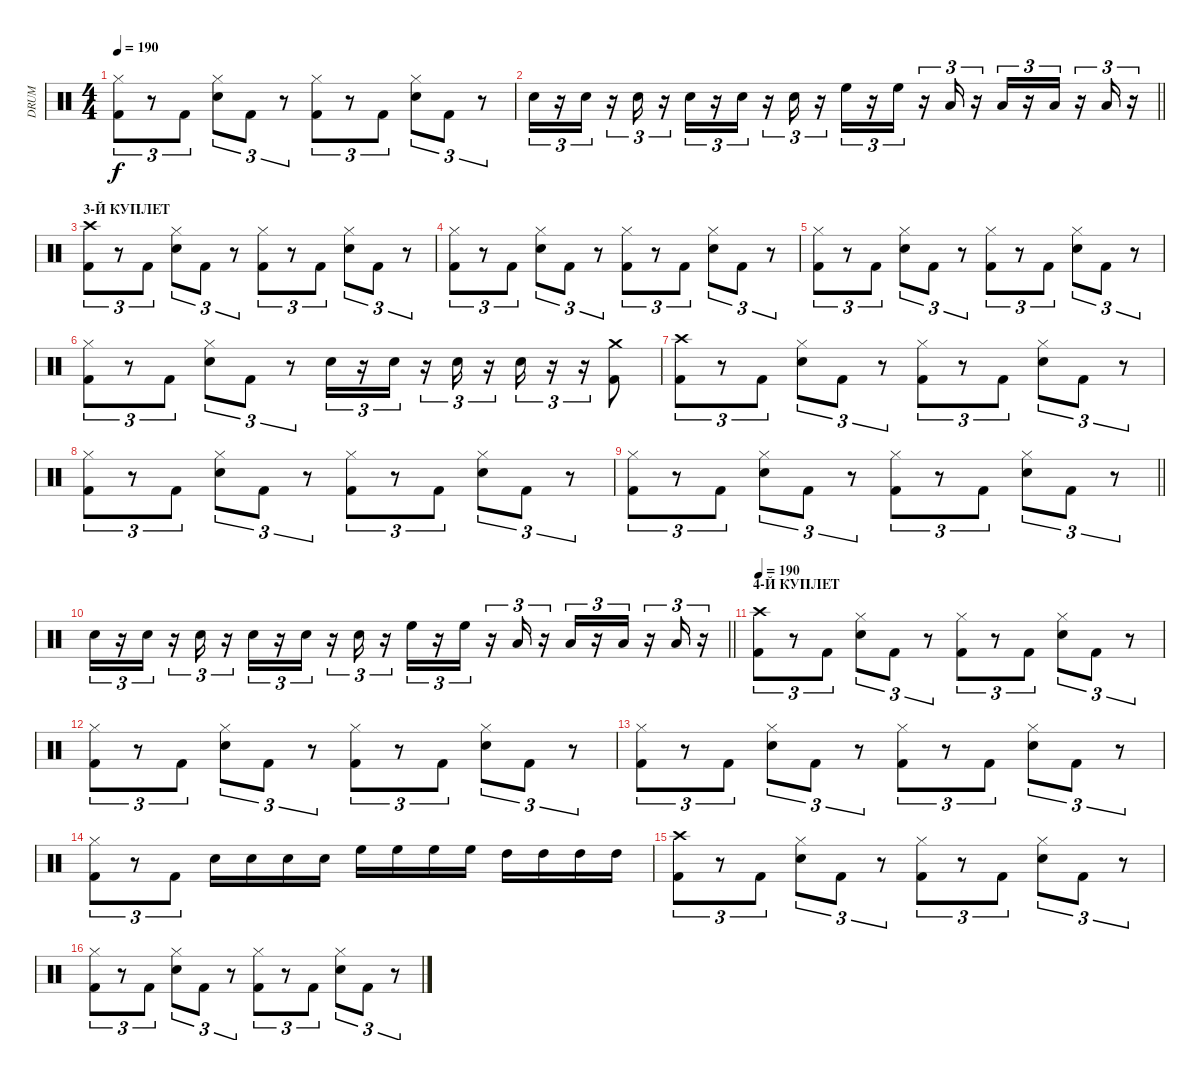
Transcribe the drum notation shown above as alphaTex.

\track ("DRUM" "DRUM") {instrument percussion bank 127}
\staff {score}
\articulation defaults
\ts (4 4)
\tempo 190
\clef neutral
\ks c
("Hi-Hat (closed)" "Kick (hit) 2").8{tu (3 2) dy f} r.8{tu (3 2)} "Kick (hit) 2".8{tu (3 2)} ("Hi-Hat (closed)" "Electric Snare (hit)").8{tu (3 2)} "Kick (hit) 2".8{tu (3 2)} r.8{tu (3 2)} ("Hi-Hat (closed)" "Kick (hit) 2").8{tu (3 2)} r.8{tu (3 2)} "Kick (hit) 2".8{tu (3 2)} ("Hi-Hat (closed)" "Electric Snare (hit)").8{tu (3 2)} "Kick (hit) 2".8{tu (3 2)} r.8{tu (3 2)} |
\barLineRight lightlight "Electric Snare (hit)".16{tu (3 2)}
r.16{tu (3 2)} "Electric Snare (hit)".16{tu (3 2)} r.16{tu (3 2)} "Electric Snare (hit)".16{tu (3 2)} r.16{tu (3 2)} "Electric Snare (hit)".16{tu (3 2)} r.16{tu (3 2)} "Electric Snare (hit)".16{tu (3 2)} r.16{tu (3 2)} "Electric Snare (hit)".16{tu (3 2)} r.16{tu (3 2)} "High Floor Tom (hit)".16{tu (3 2)} r.16{tu (3 2)} "High Floor Tom (hit)".16{tu (3 2)} r.16{tu (3 2)} "Low Tom (hit)".16{tu (3 2)} r.16{tu (3 2)} "Low Tom (hit)".16{tu (3 2)} r.16{tu (3 2)} "Low Tom (hit)".16{tu (3 2)} r.16{tu (3 2)} "Low Tom (hit)".16{tu (3 2)} r.16{tu (3 2)} |
\section ("" "3-Й КУПЛЕТ")
("Crash high (hit)" "Kick (hit) 2").8{tu (3 2)} r.8{tu (3 2)} "Kick (hit) 2".8{tu (3 2)} ("Hi-Hat (closed)" "Electric Snare (hit)").8{tu (3 2)} "Kick (hit) 2".8{tu (3 2)} r.8{tu (3 2)} ("Hi-Hat (closed)" "Kick (hit) 2").8{tu (3 2)} r.8{tu (3 2)} "Kick (hit) 2".8{tu (3 2)} ("Hi-Hat (closed)" "Electric Snare (hit)").8{tu (3 2)} "Kick (hit) 2".8{tu (3 2)} r.8{tu (3 2)} |
("Hi-Hat (closed)" "Kick (hit) 2").8{tu (3 2)} r.8{tu (3 2)} "Kick (hit) 2".8{tu (3 2)} ("Hi-Hat (closed)" "Electric Snare (hit)").8{tu (3 2)} "Kick (hit) 2".8{tu (3 2)} r.8{tu (3 2)} ("Hi-Hat (closed)" "Kick (hit) 2").8{tu (3 2)} r.8{tu (3 2)} "Kick (hit) 2".8{tu (3 2)} ("Hi-Hat (closed)" "Electric Snare (hit)").8{tu (3 2)} "Kick (hit) 2".8{tu (3 2)} r.8{tu (3 2)} |
("Hi-Hat (closed)" "Kick (hit) 2").8{tu (3 2)} r.8{tu (3 2)} "Kick (hit) 2".8{tu (3 2)} ("Hi-Hat (closed)" "Electric Snare (hit)").8{tu (3 2)} "Kick (hit) 2".8{tu (3 2)} r.8{tu (3 2)} ("Hi-Hat (closed)" "Kick (hit) 2").8{tu (3 2)} r.8{tu (3 2)} "Kick (hit) 2".8{tu (3 2)} ("Hi-Hat (closed)" "Electric Snare (hit)").8{tu (3 2)} "Kick (hit) 2".8{tu (3 2)} r.8{tu (3 2)} |
("Hi-Hat (closed)" "Kick (hit) 2").8{tu (3 2)} r.8{tu (3 2)} "Kick (hit) 2".8{tu (3 2)} ("Electric Snare (hit)" "Hi-Hat (closed)").8{tu (3 2)} "Kick (hit) 2".8{tu (3 2)} r.8{tu (3 2)} "Electric Snare (hit)".16{tu (3 2)} r.16{tu (3 2)} "Electric Snare (hit)".16{tu (3 2)} r.16{tu (3 2)} "Electric Snare (hit)".16{tu (3 2)} r.16{tu (3 2)} "Electric Snare (hit)".16{tu (3 2)} r.16{tu (3 2)} r.16{tu (3 2)} ("Crash medium (hit)" "Kick (hit) 2").8 |
("Crash high (hit)" "Kick (hit) 2").8{tu (3 2)} r.8{tu (3 2)} "Kick (hit) 2".8{tu (3 2)} ("Hi-Hat (closed)" "Electric Snare (hit)").8{tu (3 2)} "Kick (hit) 2".8{tu (3 2)} r.8{tu (3 2)} ("Hi-Hat (closed)" "Kick (hit) 2").8{tu (3 2)} r.8{tu (3 2)} "Kick (hit) 2".8{tu (3 2)} ("Hi-Hat (closed)" "Electric Snare (hit)").8{tu (3 2)} "Kick (hit) 2".8{tu (3 2)} r.8{tu (3 2)} |
("Hi-Hat (closed)" "Kick (hit) 2").8{tu (3 2)} r.8{tu (3 2)} "Kick (hit) 2".8{tu (3 2)} ("Hi-Hat (closed)" "Electric Snare (hit)").8{tu (3 2)} "Kick (hit) 2".8{tu (3 2)} r.8{tu (3 2)} ("Hi-Hat (closed)" "Kick (hit) 2").8{tu (3 2)} r.8{tu (3 2)} "Kick (hit) 2".8{tu (3 2)} ("Hi-Hat (closed)" "Electric Snare (hit)").8{tu (3 2)} "Kick (hit) 2".8{tu (3 2)} r.8{tu (3 2)} |
\barLineRight lightlight
("Hi-Hat (closed)" "Kick (hit) 2").8{tu (3 2)} r.8{tu (3 2)} "Kick (hit) 2".8{tu (3 2)} ("Hi-Hat (closed)" "Electric Snare (hit)").8{tu (3 2)} "Kick (hit) 2".8{tu (3 2)} r.8{tu (3 2)} ("Hi-Hat (closed)" "Kick (hit) 2").8{tu (3 2)} r.8{tu (3 2)} "Kick (hit) 2".8{tu (3 2)} ("Hi-Hat (closed)" "Electric Snare (hit)").8{tu (3 2)} "Kick (hit) 2".8{tu (3 2)} r.8{tu (3 2)} |
\barLineRight lightlight "Electric Snare (hit)".16{tu (3 2)}
r.16{tu (3 2)} "Electric Snare (hit)".16{tu (3 2)} r.16{tu (3 2)} "Electric Snare (hit)".16{tu (3 2)} r.16{tu (3 2)} "Electric Snare (hit)".16{tu (3 2)} r.16{tu (3 2)} "Electric Snare (hit)".16{tu (3 2)} r.16{tu (3 2)} "Electric Snare (hit)".16{tu (3 2)} r.16{tu (3 2)} "High Floor Tom (hit)".16{tu (3 2)} r.16{tu (3 2)} "High Floor Tom (hit)".16{tu (3 2)} r.16{tu (3 2)} "Low Tom (hit)".16{tu (3 2)} r.16{tu (3 2)} "Low Tom (hit)".16{tu (3 2)} r.16{tu (3 2)} "Low Tom (hit)".16{tu (3 2)} r.16{tu (3 2)} "Low Tom (hit)".16{tu (3 2)} r.16{tu (3 2)} |
\section ("" "4-Й КУПЛЕТ")
\tempo 190
("Crash high (hit)" "Kick (hit) 2").8{tu (3 2)} r.8{tu (3 2)} "Kick (hit) 2".8{tu (3 2)} ("Hi-Hat (closed)" "Electric Snare (hit)").8{tu (3 2)} "Kick (hit) 2".8{tu (3 2)} r.8{tu (3 2)} ("Hi-Hat (closed)" "Kick (hit) 2").8{tu (3 2)} r.8{tu (3 2)} "Kick (hit) 2".8{tu (3 2)} ("Hi-Hat (closed)" "Electric Snare (hit)").8{tu (3 2)} "Kick (hit) 2".8{tu (3 2)} r.8{tu (3 2)} |
("Hi-Hat (closed)" "Kick (hit) 2").8{tu (3 2)} r.8{tu (3 2)} "Kick (hit) 2".8{tu (3 2)} ("Hi-Hat (closed)" "Electric Snare (hit)").8{tu (3 2)} "Kick (hit) 2".8{tu (3 2)} r.8{tu (3 2)} ("Hi-Hat (closed)" "Kick (hit) 2").8{tu (3 2)} r.8{tu (3 2)} "Kick (hit) 2".8{tu (3 2)} ("Hi-Hat (closed)" "Electric Snare (hit)").8{tu (3 2)} "Kick (hit) 2".8{tu (3 2)} r.8{tu (3 2)} |
("Hi-Hat (closed)" "Kick (hit) 2").8{tu (3 2)} r.8{tu (3 2)} "Kick (hit) 2".8{tu (3 2)} ("Hi-Hat (closed)" "Electric Snare (hit)").8{tu (3 2)} "Kick (hit) 2".8{tu (3 2)} r.8{tu (3 2)} ("Hi-Hat (closed)" "Kick (hit) 2").8{tu (3 2)} r.8{tu (3 2)} "Kick (hit) 2".8{tu (3 2)} ("Hi-Hat (closed)" "Electric Snare (hit)").8{tu (3 2)} "Kick (hit) 2".8{tu (3 2)} r.8{tu (3 2)} |
("Hi-Hat (closed)" "Kick (hit) 2").8{tu (3 2)} r.8{tu (3 2)} "Kick (hit) 2".8{tu (3 2)} "Electric Snare (hit)".16 "Electric Snare (hit)".16 "Electric Snare (hit)".16 "Electric Snare (hit)".16 "High Floor Tom (hit)".16 "High Floor Tom (hit)".16 "High Floor Tom (hit)".16 "High Floor Tom (hit)".16 "High Tom (hit)".16 "High Tom (hit)".16 "High Tom (hit)".16 "High Tom (hit)".16 |
("Crash high (hit)" "Kick (hit) 2").8{tu (3 2)} r.8{tu (3 2)} "Kick (hit) 2".8{tu (3 2)} ("Hi-Hat (closed)" "Electric Snare (hit)").8{tu (3 2)} "Kick (hit) 2".8{tu (3 2)} r.8{tu (3 2)} ("Hi-Hat (closed)" "Kick (hit) 2").8{tu (3 2)} r.8{tu (3 2)} "Kick (hit) 2".8{tu (3 2)} ("Hi-Hat (closed)" "Electric Snare (hit)").8{tu (3 2)} "Kick (hit) 2".8{tu (3 2)} r.8{tu (3 2)} |
("Hi-Hat (closed)" "Kick (hit) 2").8{tu (3 2)} r.8{tu (3 2)} "Kick (hit) 2".8{tu (3 2)} ("Hi-Hat (closed)" "Electric Snare (hit)").8{tu (3 2)} "Kick (hit) 2".8{tu (3 2)} r.8{tu (3 2)} ("Hi-Hat (closed)" "Kick (hit) 2").8{tu (3 2)} r.8{tu (3 2)} "Kick (hit) 2".8{tu (3 2)} ("Hi-Hat (closed)" "Electric Snare (hit)").8{tu (3 2)} "Kick (hit) 2".8{tu (3 2)} r.8{tu (3 2)}
